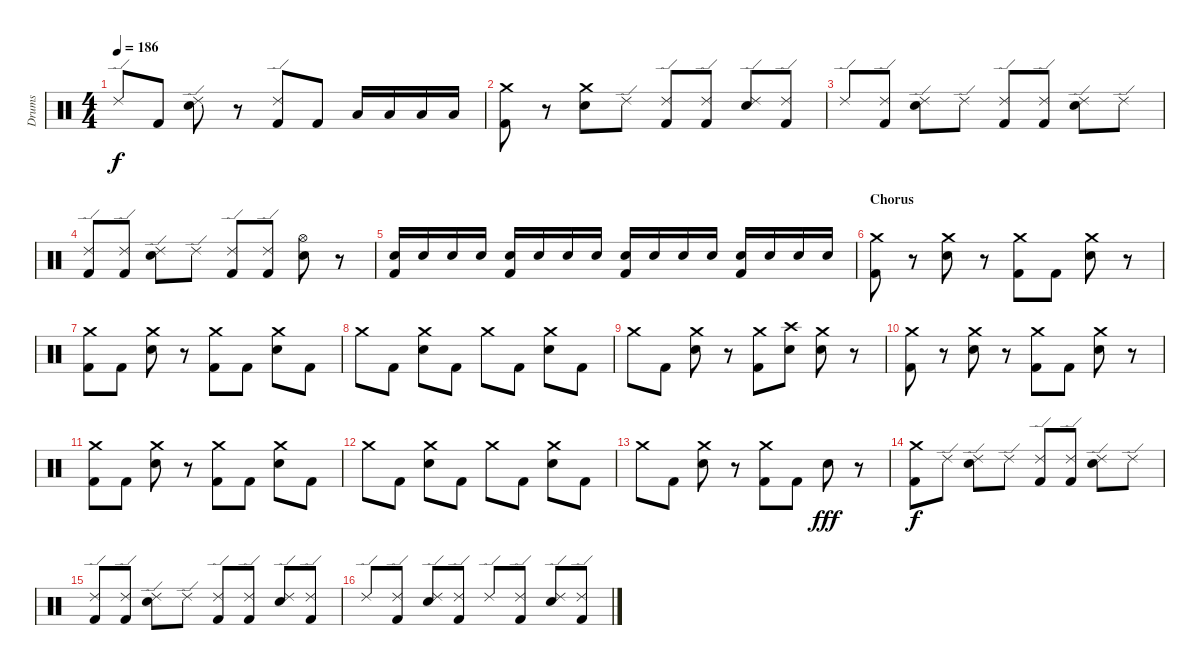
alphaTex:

\track ("Drums" "Drums") {instrument percussion}
\staff {score}
\articulation defaults
\ts (4 4)
\tempo 186
\clef neutral
\ks c "Ride (edge) 2".8{dy f} "Kick (hit) 2".8
("Ride (edge) 2" "Electric Snare (hit)").8 r.8 ("Ride (edge) 2" "Kick (hit) 2").8 "Kick (hit) 2".8 "Low Tom (hit)".16 "Low Tom (hit)".16 "Low Tom (hit)".16 "Low Tom (hit)".16 |
("Crash medium (hit)" "Kick (hit) 2").8 r.8 ("Crash medium (hit)" "Electric Snare (hit)").8 "Ride (edge) 2".8 ("Ride (edge) 2" "Kick (hit) 2").8 ("Ride (edge) 2" "Kick (hit) 2").8 ("Ride (edge) 2" "Electric Snare (hit)").8 ("Ride (edge) 2" "Kick (hit) 2").8 |
"Ride (edge) 2".8 ("Ride (edge) 2" "Kick (hit) 2").8 ("Ride (edge) 2" "Electric Snare (hit)").8 "Ride (edge) 2".8 ("Ride (edge) 2" "Kick (hit) 2").8 ("Ride (edge) 2" "Kick (hit) 2").8 ("Ride (edge) 2" "Electric Snare (hit)").8 "Ride (edge) 2".8 |
("Ride (edge) 2" "Kick (hit) 2").8 ("Ride (edge) 2" "Kick (hit) 2").8 ("Ride (edge) 2" "Electric Snare (hit)").8 "Ride (edge) 2".8 ("Ride (edge) 2" "Kick (hit) 2").8 ("Ride (edge) 2" "Kick (hit) 2").8 ("Hi-Hat (open)" "Electric Snare (hit)").8 r.8 |
("Electric Snare (hit)" "Kick (hit) 2").16 "Electric Snare (hit)".16 "Electric Snare (hit)".16 "Electric Snare (hit)".16 ("Electric Snare (hit)" "Kick (hit) 2").16 "Electric Snare (hit)".16 "Electric Snare (hit)".16 "Electric Snare (hit)".16 ("Electric Snare (hit)" "Kick (hit) 2").16 "Electric Snare (hit)".16 "Electric Snare (hit)".16 "Electric Snare (hit)".16 ("Electric Snare (hit)" "Kick (hit) 2").16 "Electric Snare (hit)".16 "Electric Snare (hit)".16 "Electric Snare (hit)".16 |
\section ("" "Chorus")
("Crash medium (hit)" "Kick (hit) 2").8 r.8 ("Crash medium (hit)" "Electric Snare (hit)").8 r.8 ("Crash medium (hit)" "Kick (hit) 2").8 "Kick (hit) 2".8 ("Crash medium (hit)" "Electric Snare (hit)").8 r.8 |
("Crash medium (hit)" "Kick (hit) 2").8 "Kick (hit) 2".8 ("Crash medium (hit)" "Electric Snare (hit)").8 r.8 ("Crash medium (hit)" "Kick (hit) 2").8 "Kick (hit) 2".8 ("Crash medium (hit)" "Electric Snare (hit)").8 "Kick (hit) 2".8 |
"Crash medium (hit)".8 "Kick (hit) 2".8 ("Crash medium (hit)" "Electric Snare (hit)").8 "Kick (hit) 2".8 "Crash medium (hit)".8 "Kick (hit) 2".8 ("Crash medium (hit)" "Electric Snare (hit)").8 "Kick (hit) 2".8 |
"Crash medium (hit)".8 "Kick (hit) 2".8 ("Crash medium (hit)" "Electric Snare (hit)").8 r.8 ("Crash medium (hit)" "Kick (hit) 2").8 ("Crash high (hit)" "Electric Snare (hit)").8 ("Crash medium (hit)" "Electric Snare (hit)").8 r.8 |
("Crash medium (hit)" "Kick (hit) 2").8 r.8 ("Crash medium (hit)" "Electric Snare (hit)").8 r.8 ("Crash medium (hit)" "Kick (hit) 2").8 "Kick (hit) 2".8 ("Crash medium (hit)" "Electric Snare (hit)").8 r.8 |
("Crash medium (hit)" "Kick (hit) 2").8 "Kick (hit) 2".8 ("Crash medium (hit)" "Electric Snare (hit)").8 r.8 ("Crash medium (hit)" "Kick (hit) 2").8 "Kick (hit) 2".8 ("Crash medium (hit)" "Electric Snare (hit)").8 "Kick (hit) 2".8 |
"Crash medium (hit)".8 "Kick (hit) 2".8 ("Crash medium (hit)" "Electric Snare (hit)").8 "Kick (hit) 2".8 "Crash medium (hit)".8 "Kick (hit) 2".8 ("Crash medium (hit)" "Electric Snare (hit)").8 "Kick (hit) 2".8 |
"Crash medium (hit)".8 "Kick (hit) 2".8 ("Crash medium (hit)" "Electric Snare (hit)").8 r.8 ("Crash medium (hit)" "Kick (hit) 2").8 "Kick (hit) 2".8 "Electric Snare (hit)".8{dy fff} r.8 |
("Crash medium (hit)" "Kick (hit) 2").8{dy f} "Ride (edge) 2".8 ("Ride (edge) 2" "Electric Snare (hit)").8 "Ride (edge) 2".8 ("Ride (edge) 2" "Kick (hit) 2").8 ("Ride (edge) 2" "Kick (hit) 2").8 ("Ride (edge) 2" "Electric Snare (hit)").8 "Ride (edge) 2".8 |
("Ride (edge) 2" "Kick (hit) 2").8 ("Ride (edge) 2" "Kick (hit) 2").8 ("Ride (edge) 2" "Electric Snare (hit)").8 "Ride (edge) 2".8 ("Ride (edge) 2" "Kick (hit) 2").8 ("Ride (edge) 2" "Kick (hit) 2").8 ("Ride (edge) 2" "Electric Snare (hit)").8 ("Ride (edge) 2" "Kick (hit) 2").8 |
"Ride (edge) 2".8 ("Ride (edge) 2" "Kick (hit) 2").8 ("Ride (edge) 2" "Electric Snare (hit)").8 ("Ride (edge) 2" "Kick (hit) 2").8 "Ride (edge) 2".8 ("Ride (edge) 2" "Kick (hit) 2").8 ("Ride (edge) 2" "Electric Snare (hit)").8 ("Ride (edge) 2" "Kick (hit) 2").8
